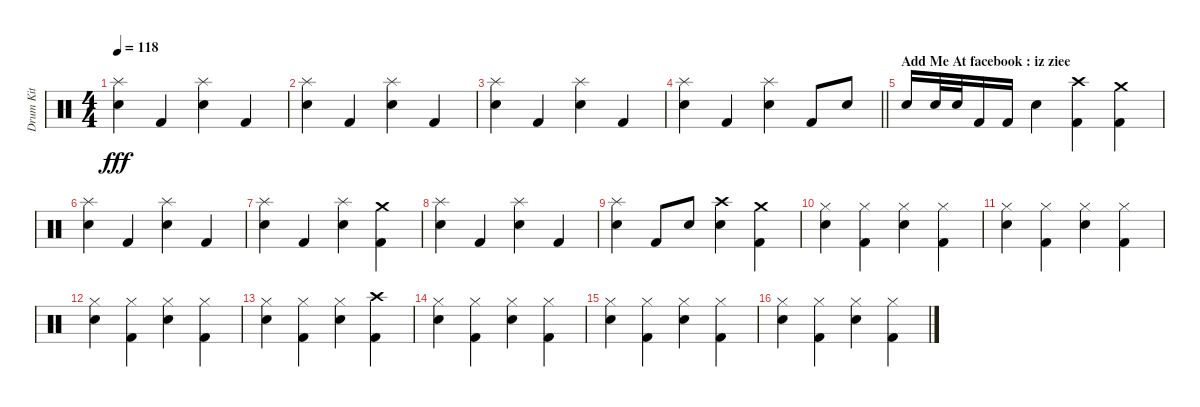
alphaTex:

\track ("Drum Kit" "Drum Kit") {instrument percussion}
\staff {score}
\articulation defaults
\ts (4 4)
\tempo 118
\clef neutral
\ks c
("Electric Snare (hit)" "Splash (hit)").4{dy fff} "Kick (hit) 2".4 ("Electric Snare (hit)" "Splash (hit)").4 "Kick (hit) 2".4 |
("Splash (hit)" "Electric Snare (hit)").4 "Kick (hit) 2".4 ("Electric Snare (hit)" "Splash (hit)").4 "Kick (hit) 2".4 |
("Electric Snare (hit)" "Splash (hit)").4 "Kick (hit) 2".4 ("Electric Snare (hit)" "Splash (hit)").4 "Kick (hit) 2".4 |
\barLineRight lightlight
("Electric Snare (hit)" "Splash (hit)").4 "Kick (hit) 2".4 ("Splash (hit)" "Electric Snare (hit)").4 "Kick (hit) 2".8 "Electric Snare (hit)".8 |
\section ("" "Add Me At facebook : iz ziee")
"Electric Snare (hit)".16 "Electric Snare (hit)".32 "Electric Snare (hit)".32 "Kick (hit) 2".16 "Kick (hit) 2".16 "Electric Snare (hit)".4 ("Kick (hit) 2" "Crash high (hit)").4 ("Crash medium (hit)" "Kick (hit) 2").4 |
("Splash (hit)" "Electric Snare (hit)").4 "Kick (hit) 2".4 ("Electric Snare (hit)" "Splash (hit)").4 "Kick (hit) 2".4 |
("Electric Snare (hit)" "Splash (hit)").4 "Kick (hit) 2".4 ("Splash (hit)" "Electric Snare (hit)").4 ("Kick (hit) 2" "Crash medium (hit)").4 |
("Electric Snare (hit)" "Splash (hit)").4 "Kick (hit) 2".4 ("Splash (hit)" "Electric Snare (hit)").4 "Kick (hit) 2".4 |
("Splash (hit)" "Electric Snare (hit)").4 "Kick (hit) 2".8 "Electric Snare (hit)".8 ("Electric Snare (hit)" "Crash high (hit)").4 ("Crash medium (hit)" "Kick (hit) 2").4 |
("Hi-Hat (closed)" "Electric Snare (hit)").4 ("Hi-Hat (closed)" "Kick (hit) 2").4 ("Hi-Hat (closed)" "Electric Snare (hit)").4 ("Hi-Hat (closed)" "Kick (hit) 2").4 |
("Hi-Hat (closed)" "Electric Snare (hit)").4 ("Hi-Hat (closed)" "Kick (hit) 2").4 ("Hi-Hat (closed)" "Electric Snare (hit)").4 ("Hi-Hat (closed)" "Kick (hit) 2").4 |
("Hi-Hat (closed)" "Electric Snare (hit)").4 ("Hi-Hat (closed)" "Kick (hit) 2").4 ("Hi-Hat (closed)" "Electric Snare (hit)").4 ("Hi-Hat (closed)" "Kick (hit) 2").4 |
("Hi-Hat (closed)" "Electric Snare (hit)").4 ("Hi-Hat (closed)" "Kick (hit) 2").4 ("Hi-Hat (closed)" "Electric Snare (hit)").4 ("Crash high (hit)" "Kick (hit) 2").4 |
("Hi-Hat (closed)" "Electric Snare (hit)").4 ("Hi-Hat (closed)" "Kick (hit) 2").4 ("Hi-Hat (closed)" "Electric Snare (hit)").4 ("Hi-Hat (closed)" "Kick (hit) 2").4 |
("Hi-Hat (closed)" "Electric Snare (hit)").4 ("Hi-Hat (closed)" "Kick (hit) 2").4 ("Hi-Hat (closed)" "Electric Snare (hit)").4 ("Hi-Hat (closed)" "Kick (hit) 2").4 |
("Hi-Hat (closed)" "Electric Snare (hit)").4 ("Hi-Hat (closed)" "Kick (hit) 2").4 ("Electric Snare (hit)" "Hi-Hat (closed)").4 ("Kick (hit) 2" "Hi-Hat (closed)").4
